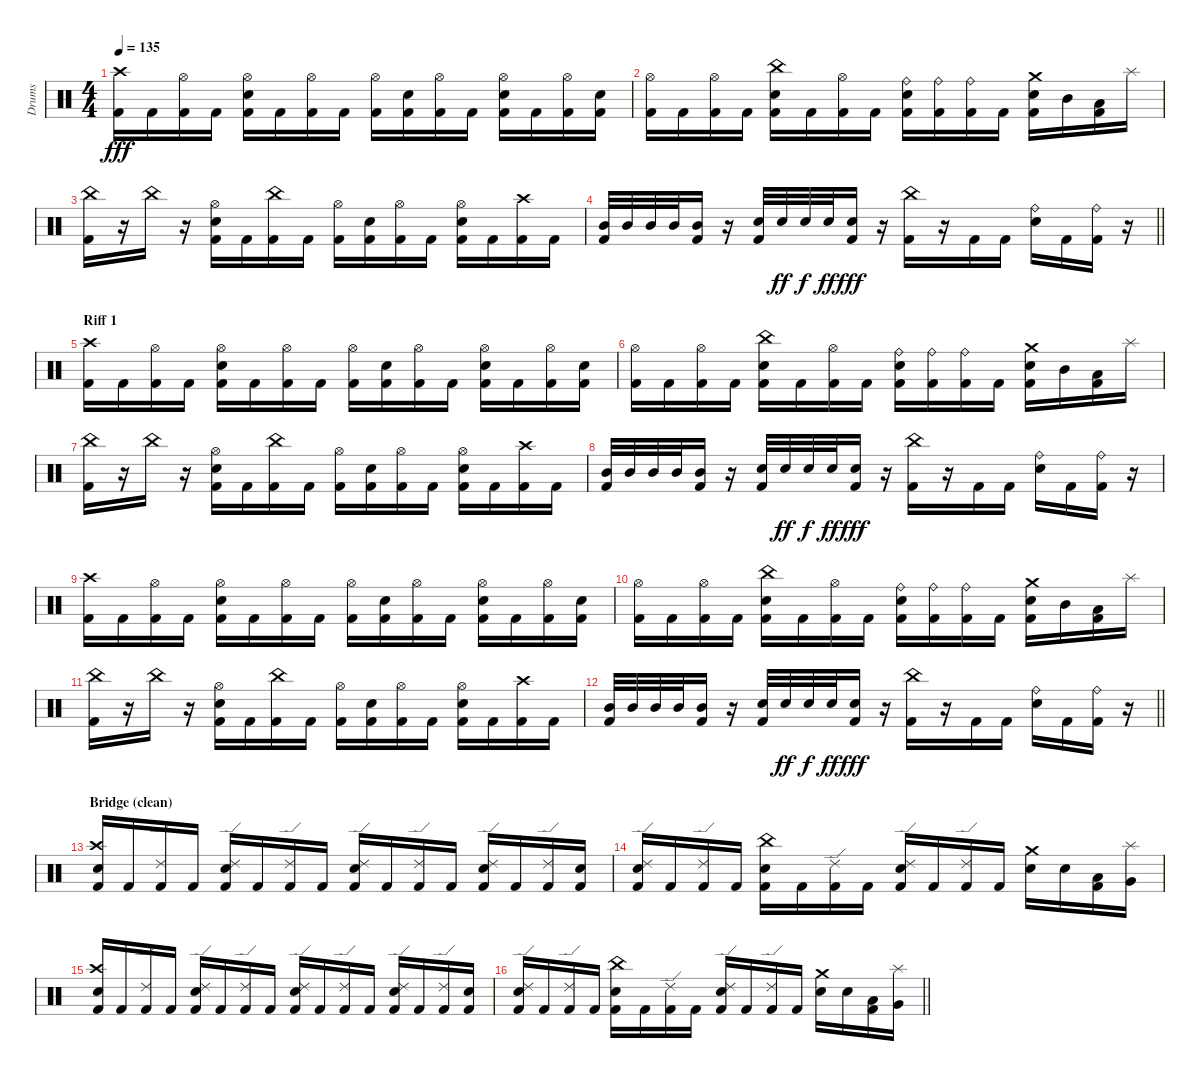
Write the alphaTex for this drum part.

\track ("Drums" "Drums") {instrument percussion}
\staff {score}
\articulation defaults
\ts (4 4)
\tempo 135
\clef neutral
\ks c
("Kick (hit) 2" "Crash high (hit)").16{dy fff} "Kick (hit) 2".16 ("Kick (hit) 2" "Hi-Hat (open)").16 "Kick (hit) 2".16 ("Kick (hit) 2" "Snare (hit) 2" "Hi-Hat (open)").16 "Kick (hit) 2".16 ("Kick (hit) 2" "Hi-Hat (open)").16 "Kick (hit) 2".16 ("Kick (hit) 2" "Hi-Hat (open)").16 ("Kick (hit) 2" "Snare (hit) 2").16 ("Kick (hit) 2" "Hi-Hat (open)").16 "Kick (hit) 2".16 ("Kick (hit) 2" "Snare (hit) 2" "Hi-Hat (open)").16 "Kick (hit) 2".16 ("Kick (hit) 2" "Hi-Hat (open)").16 ("Kick (hit) 2" "Snare (hit) 2").16 |
("Kick (hit) 2" "Hi-Hat (open)").16 "Kick (hit) 2".16 ("Kick (hit) 2" "Hi-Hat (open)").16 "Kick (hit) 2".16 ("Kick (hit) 2" "Snare (hit) 2" "China (hit)").16 "Kick (hit) 2".16 ("Kick (hit) 2" "Hi-Hat (open)").16 "Kick (hit) 2".16 ("Kick (hit) 2" "Snare (hit) 2" "Ride (bell)").16 ("Kick (hit) 2" "Ride (bell)").16 ("Kick (hit) 2" "Ride (bell)").16 "Kick (hit) 2".16 ("Kick (hit) 2" "Snare (hit) 2" "Crash medium (hit)").16 "Mid Tom (hit)".16 ("Kick (hit) 2" "Low Tom (hit)").16 "Splash (hit)".16 |
("Kick (hit) 2" "China (hit)").16 r.16 "China (hit)".16 r.16 ("Kick (hit) 2" "Snare (hit) 2" "Hi-Hat (open)").16 "Kick (hit) 2".16 ("Kick (hit) 2" "China (hit)").16 "Kick (hit) 2".16 ("Kick (hit) 2" "Hi-Hat (open)").16 ("Kick (hit) 2" "Snare (hit) 2").16 ("Kick (hit) 2" "Hi-Hat (open)").16 "Kick (hit) 2".16 ("Kick (hit) 2" "Snare (hit) 2" "Hi-Hat (open)").16 "Kick (hit) 2".16 ("Kick (hit) 2" "Crash high (hit)").16 "Kick (hit) 2".16 |
\barLineRight lightlight
("Kick (hit) 2" "Mid Tom (hit)").32 "Mid Tom (hit)".32 "Mid Tom (hit)".32 "Mid Tom (hit)".32 ("Kick (hit) 2" "Mid Tom (hit)").16 r.16 ("Kick (hit) 2" "Snare (hit) 2").32 "Snare (hit) 2".32{dy ff} "Snare (hit) 2".32{dy f} "Snare (hit) 2".32{dy ff} ("Kick (hit) 2" "Snare (hit) 2").16{dy fff} r.16 ("Kick (hit) 2" "China (hit)").16 r.16 "Kick (hit) 2".16 "Kick (hit) 2".16 ("Snare (hit) 2" "Ride (bell)").16 "Kick (hit) 2".16 ("Kick (hit) 2" "Ride (bell)").16 r.16 |
\section ("" "Riff 1")
("Kick (hit) 2" "Crash high (hit)").16 "Kick (hit) 2".16 ("Kick (hit) 2" "Hi-Hat (open)").16 "Kick (hit) 2".16 ("Kick (hit) 2" "Snare (hit) 2" "Hi-Hat (open)").16 "Kick (hit) 2".16 ("Kick (hit) 2" "Hi-Hat (open)").16 "Kick (hit) 2".16 ("Kick (hit) 2" "Hi-Hat (open)").16 ("Kick (hit) 2" "Snare (hit) 2").16 ("Kick (hit) 2" "Hi-Hat (open)").16 "Kick (hit) 2".16 ("Kick (hit) 2" "Snare (hit) 2" "Hi-Hat (open)").16 "Kick (hit) 2".16 ("Kick (hit) 2" "Hi-Hat (open)").16 ("Kick (hit) 2" "Snare (hit) 2").16 |
("Kick (hit) 2" "Hi-Hat (open)").16 "Kick (hit) 2".16 ("Kick (hit) 2" "Hi-Hat (open)").16 "Kick (hit) 2".16 ("Kick (hit) 2" "Snare (hit) 2" "China (hit)").16 "Kick (hit) 2".16 ("Kick (hit) 2" "Hi-Hat (open)").16 "Kick (hit) 2".16 ("Kick (hit) 2" "Snare (hit) 2" "Ride (bell)").16 ("Kick (hit) 2" "Ride (bell)").16 ("Kick (hit) 2" "Ride (bell)").16 "Kick (hit) 2".16 ("Kick (hit) 2" "Snare (hit) 2" "Crash medium (hit)").16 "Mid Tom (hit)".16 ("Kick (hit) 2" "Low Tom (hit)").16 "Splash (hit)".16 |
("Kick (hit) 2" "China (hit)").16 r.16 "China (hit)".16 r.16 ("Kick (hit) 2" "Snare (hit) 2" "Hi-Hat (open)").16 "Kick (hit) 2".16 ("Kick (hit) 2" "China (hit)").16 "Kick (hit) 2".16 ("Kick (hit) 2" "Hi-Hat (open)").16 ("Kick (hit) 2" "Snare (hit) 2").16 ("Kick (hit) 2" "Hi-Hat (open)").16 "Kick (hit) 2".16 ("Kick (hit) 2" "Snare (hit) 2" "Hi-Hat (open)").16 "Kick (hit) 2".16 ("Kick (hit) 2" "Crash high (hit)").16 "Kick (hit) 2".16 |
("Kick (hit) 2" "Mid Tom (hit)").32 "Mid Tom (hit)".32 "Mid Tom (hit)".32 "Mid Tom (hit)".32 ("Kick (hit) 2" "Mid Tom (hit)").16 r.16 ("Kick (hit) 2" "Snare (hit) 2").32 "Snare (hit) 2".32{dy ff} "Snare (hit) 2".32{dy f} "Snare (hit) 2".32{dy ff} ("Kick (hit) 2" "Snare (hit) 2").16{dy fff} r.16 ("Kick (hit) 2" "China (hit)").16 r.16 "Kick (hit) 2".16 "Kick (hit) 2".16 ("Snare (hit) 2" "Ride (bell)").16 "Kick (hit) 2".16 ("Kick (hit) 2" "Ride (bell)").16 r.16 |
("Kick (hit) 2" "Crash high (hit)").16 "Kick (hit) 2".16 ("Kick (hit) 2" "Hi-Hat (open)").16 "Kick (hit) 2".16 ("Kick (hit) 2" "Snare (hit) 2" "Hi-Hat (open)").16 "Kick (hit) 2".16 ("Kick (hit) 2" "Hi-Hat (open)").16 "Kick (hit) 2".16 ("Kick (hit) 2" "Hi-Hat (open)").16 ("Kick (hit) 2" "Snare (hit) 2").16 ("Kick (hit) 2" "Hi-Hat (open)").16 "Kick (hit) 2".16 ("Kick (hit) 2" "Snare (hit) 2" "Hi-Hat (open)").16 "Kick (hit) 2".16 ("Kick (hit) 2" "Hi-Hat (open)").16 ("Kick (hit) 2" "Snare (hit) 2").16 |
("Kick (hit) 2" "Hi-Hat (open)").16 "Kick (hit) 2".16 ("Kick (hit) 2" "Hi-Hat (open)").16 "Kick (hit) 2".16 ("Kick (hit) 2" "Snare (hit) 2" "China (hit)").16 "Kick (hit) 2".16 ("Kick (hit) 2" "Hi-Hat (open)").16 "Kick (hit) 2".16 ("Kick (hit) 2" "Snare (hit) 2" "Ride (bell)").16 ("Kick (hit) 2" "Ride (bell)").16 ("Kick (hit) 2" "Ride (bell)").16 "Kick (hit) 2".16 ("Kick (hit) 2" "Snare (hit) 2" "Crash medium (hit)").16 "Mid Tom (hit)".16 ("Kick (hit) 2" "Low Tom (hit)").16 "Splash (hit)".16 |
("Kick (hit) 2" "China (hit)").16 r.16 "China (hit)".16 r.16 ("Kick (hit) 2" "Snare (hit) 2" "Hi-Hat (open)").16 "Kick (hit) 2".16 ("Kick (hit) 2" "China (hit)").16 "Kick (hit) 2".16 ("Kick (hit) 2" "Hi-Hat (open)").16 ("Kick (hit) 2" "Snare (hit) 2").16 ("Kick (hit) 2" "Hi-Hat (open)").16 "Kick (hit) 2".16 ("Kick (hit) 2" "Snare (hit) 2" "Hi-Hat (open)").16 "Kick (hit) 2".16 ("Kick (hit) 2" "Crash high (hit)").16 "Kick (hit) 2".16 |
\barLineRight lightlight
("Kick (hit) 2" "Mid Tom (hit)").32 "Mid Tom (hit)".32 "Mid Tom (hit)".32 "Mid Tom (hit)".32 ("Kick (hit) 2" "Mid Tom (hit)").16 r.16 ("Kick (hit) 2" "Snare (hit) 2").32 "Snare (hit) 2".32{dy ff} "Snare (hit) 2".32{dy f} "Snare (hit) 2".32{dy ff} ("Kick (hit) 2" "Snare (hit) 2").16{dy fff} r.16 ("Kick (hit) 2" "China (hit)").16 r.16 "Kick (hit) 2".16 "Kick (hit) 2".16 ("Snare (hit) 2" "Ride (bell)").16 "Kick (hit) 2".16 ("Kick (hit) 2" "Ride (bell)").16 r.16 |
\section ("" "Bridge (clean)")
("Kick (hit) 2" "Snare (hit) 2" "Crash high (hit)").16 "Kick (hit) 2".16 ("Kick (hit) 2" "Ride (edge) 2").16 "Kick (hit) 2".16 ("Kick (hit) 2" "Snare (hit) 2" "Ride (edge) 2").16 "Kick (hit) 2".16 ("Kick (hit) 2" "Ride (edge) 2").16 "Kick (hit) 2".16 ("Kick (hit) 2" "Snare (hit) 2" "Ride (edge) 2").16 "Kick (hit) 2".16 ("Kick (hit) 2" "Ride (edge) 2").16 "Kick (hit) 2".16 ("Kick (hit) 2" "Snare (hit) 2" "Ride (edge) 2").16 "Kick (hit) 2".16 ("Kick (hit) 2" "Ride (edge) 2").16 ("Kick (hit) 2" "Snare (hit) 2").16 |
("Kick (hit) 2" "Snare (hit) 2" "Ride (edge) 2").16 "Kick (hit) 2".16 ("Kick (hit) 2" "Ride (edge) 2").16 "Kick (hit) 2".16 ("Kick (hit) 2" "Snare (hit) 2" "China (hit)").16 "Kick (hit) 2".16 ("Kick (hit) 2" "Ride (edge) 2").16 "Kick (hit) 2".16 ("Kick (hit) 2" "Snare (hit) 2" "Ride (edge) 2").16 "Kick (hit) 2".16 ("Kick (hit) 2" "Ride (edge) 2").16 "Kick (hit) 2".16 ("Snare (hit) 2" "Crash medium (hit)").16 "Snare (hit) 2".16 ("Kick (hit) 2" "Low Tom (hit)").16 ("Very Low Tom (hit)" "Splash (hit)").16 |
("Kick (hit) 2" "Snare (hit) 2" "Crash high (hit)").16 "Kick (hit) 2".16 ("Kick (hit) 2" "Ride (edge) 2").16 "Kick (hit) 2".16 ("Kick (hit) 2" "Snare (hit) 2" "Ride (edge) 2").16 "Kick (hit) 2".16 ("Kick (hit) 2" "Ride (edge) 2").16 "Kick (hit) 2".16 ("Kick (hit) 2" "Snare (hit) 2" "Ride (edge) 2").16 "Kick (hit) 2".16 ("Kick (hit) 2" "Ride (edge) 2").16 "Kick (hit) 2".16 ("Kick (hit) 2" "Snare (hit) 2" "Ride (edge) 2").16 "Kick (hit) 2".16 ("Kick (hit) 2" "Ride (edge) 2").16 ("Kick (hit) 2" "Snare (hit) 2").16 |
\barLineRight lightlight
("Kick (hit) 2" "Snare (hit) 2" "Ride (edge) 2").16 "Kick (hit) 2".16 ("Kick (hit) 2" "Ride (edge) 2").16 "Kick (hit) 2".16 ("Kick (hit) 2" "Snare (hit) 2" "China (hit)").16 "Kick (hit) 2".16 ("Kick (hit) 2" "Ride (edge) 2").16 "Kick (hit) 2".16 ("Kick (hit) 2" "Snare (hit) 2" "Ride (edge) 2").16 "Kick (hit) 2".16 ("Kick (hit) 2" "Ride (edge) 2").16 "Kick (hit) 2".16 ("Snare (hit) 2" "Crash medium (hit)").16 "Snare (hit) 2".16 ("Kick (hit) 2" "Low Tom (hit)").16 ("Very Low Tom (hit)" "Splash (hit)").16
